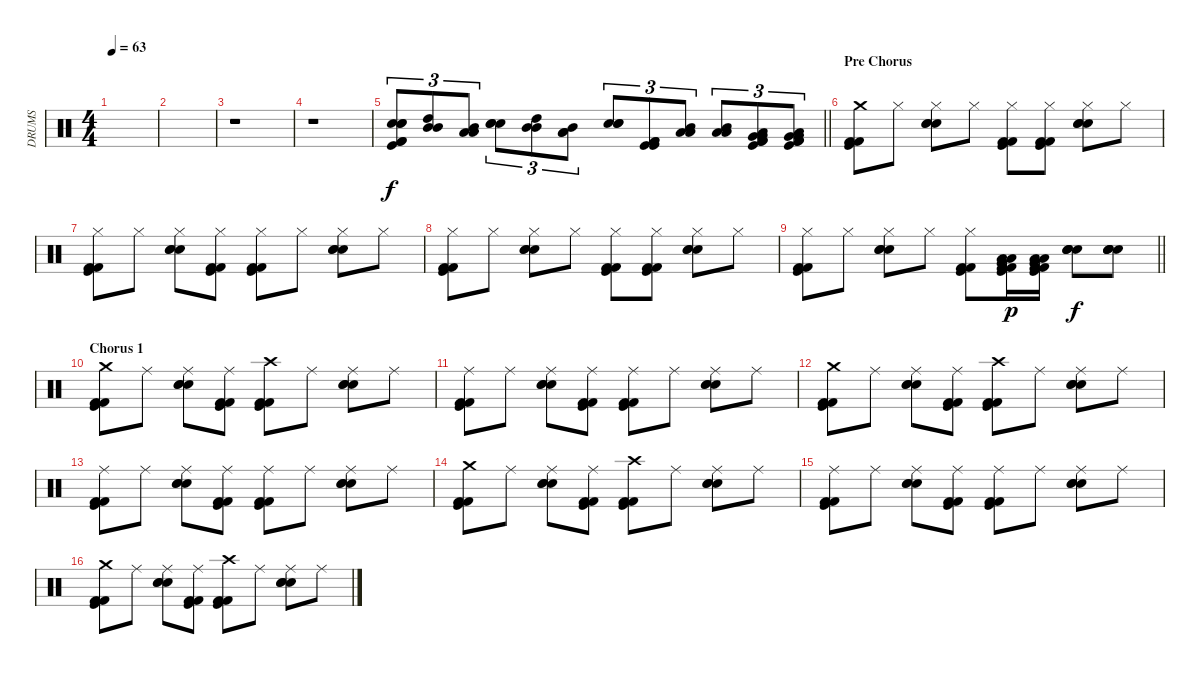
\track ("DRUMS" "DRUMS") {instrument percussion}
\staff {score}
\articulation defaults
\ts (4 4)
\tempo 63
\clef neutral
\ks c
|
|
r.1 |
r.1 |
\barLineRight lightlight
("Kick (hit) 2" "Kick (hit)" "Kick (hit) 2" "Electric Snare (hit)" "Snare (hit) 2" "Electric Snare (hit)").8{tu (3 2) volume 10} ("Mid Tom (hit)" "Mid Tom (hit)" "High Tom (hit)").8{tu (3 2) balance 2} ("Low Tom (hit)" "Low Tom (hit)" "Mid Tom (hit)").8{tu (3 2) balance 4} ("Electric Snare (hit)" "Snare (hit) 2" "Electric Snare (hit)").8{tu (3 2) balance 8} ("Mid Tom (hit)" "Mid Tom (hit)" "High Tom (hit)").8{tu (3 2) balance 14} ("Low Tom (hit)" "Low Tom (hit)" "Mid Tom (hit)").8{tu (3 2) balance 12} ("Electric Snare (hit)" "Snare (hit) 2" "Electric Snare (hit)").8{tu (3 2) balance 8} ("Kick (hit) 2" "Kick (hit)" "Kick (hit) 2" "Kick (hit)").8{tu (3 2)} ("Low Tom (hit)" "Low Tom (hit)" "Mid Tom (hit)").8{tu (3 2) balance 4} ("Low Tom (hit)" "Low Tom (hit)" "Mid Tom (hit)").8{tu (3 2) balance 12} ("Very Low Tom (hit)" "Very Low Tom (hit)" "Low Tom (hit)" "Kick (hit) 2" "Kick (hit)" "Kick (hit) 2").8{tu (3 2) balance 8} ("Very Low Tom (hit)" "Very Low Tom (hit)" "Low Tom (hit)" "Kick (hit) 2" "Kick (hit)" "Kick (hit) 2").8{tu (3 2)} |
\section ("" "Pre Chorus")
("Crash medium (hit)" "Kick (hit) 2" "Kick (hit)" "Kick (hit) 2").8{volume 8} "Hi-Hat (closed)".8 ("Hi-Hat (closed)" "Electric Snare (hit)" "Snare (hit) 2" "Electric Snare (hit)").8 "Hi-Hat (closed)".8 ("Hi-Hat (closed)" "Kick (hit) 2" "Kick (hit)" "Kick (hit) 2").8 ("Hi-Hat (closed)" "Kick (hit) 2" "Kick (hit)" "Kick (hit) 2").8 ("Hi-Hat (closed)" "Electric Snare (hit)" "Snare (hit) 2" "Electric Snare (hit)").8 "Hi-Hat (closed)".8 |
("Hi-Hat (closed)" "Kick (hit) 2" "Kick (hit)" "Kick (hit) 2").8 "Hi-Hat (closed)".8 ("Hi-Hat (closed)" "Electric Snare (hit)" "Snare (hit) 2" "Electric Snare (hit)").8 ("Hi-Hat (closed)" "Kick (hit) 2" "Kick (hit)" "Kick (hit) 2").8 ("Hi-Hat (closed)" "Kick (hit) 2" "Kick (hit)" "Kick (hit) 2").8 "Hi-Hat (closed)".8 ("Hi-Hat (closed)" "Electric Snare (hit)" "Snare (hit) 2" "Electric Snare (hit)").8 "Hi-Hat (closed)".8 |
("Hi-Hat (closed)" "Kick (hit) 2" "Kick (hit)" "Kick (hit) 2").8 "Hi-Hat (closed)".8 ("Hi-Hat (closed)" "Electric Snare (hit)" "Snare (hit) 2" "Electric Snare (hit)").8 "Hi-Hat (closed)".8 ("Hi-Hat (closed)" "Kick (hit) 2" "Kick (hit)" "Kick (hit) 2").8 ("Hi-Hat (closed)" "Kick (hit) 2" "Kick (hit)" "Kick (hit) 2").8 ("Hi-Hat (closed)" "Electric Snare (hit)" "Snare (hit) 2" "Electric Snare (hit)").8 "Hi-Hat (closed)".8 |
\barLineRight lightlight
("Hi-Hat (closed)" "Kick (hit) 2" "Kick (hit)" "Kick (hit) 2").8 "Hi-Hat (closed)".8 ("Hi-Hat (closed)" "Electric Snare (hit)" "Snare (hit) 2" "Electric Snare (hit)").8 "Hi-Hat (closed)".8 ("Hi-Hat (closed)" "Kick (hit) 2" "Kick (hit)" "Kick (hit) 2").8 ("Low Floor Tom (hit)" "Low Floor Tom (hit)" "Very Low Tom (hit)" "Kick (hit) 2" "Kick (hit)" "Kick (hit) 2").16{dy p volume 10 balance 4} ("Low Floor Tom (hit)" "Low Floor Tom (hit)" "Very Low Tom (hit)" "Kick (hit) 2" "Kick (hit)" "Kick (hit) 2").16{balance 12} ("Electric Snare (hit)" "Electric Snare (hit)" "Snare (hit) 2" "Electric Snare (hit)").8{dy f volume 8 balance 8} ("Electric Snare (hit)" "Electric Snare (hit)" "Snare (hit) 2" "Electric Snare (hit)").8 |
\section ("" "Chorus 1")
("Crash medium (hit)" "Kick (hit) 2" "Kick (hit)" "Kick (hit) 2").8 "Ride (middle)".8 ("Ride (middle)" "Electric Snare (hit)" "Snare (hit) 2" "Electric Snare (hit)").8 ("Ride (middle)" "Kick (hit) 2" "Kick (hit)" "Kick (hit) 2").8 ("Crash high (hit)" "Kick (hit) 2" "Kick (hit)" "Kick (hit) 2").8 "Ride (middle)".8 ("Ride (middle)" "Electric Snare (hit)" "Snare (hit) 2" "Electric Snare (hit)").8 "Ride (middle)".8 |
("Ride (middle)" "Kick (hit) 2" "Kick (hit)" "Kick (hit) 2").8 "Ride (middle)".8 ("Ride (middle)" "Electric Snare (hit)" "Snare (hit) 2" "Electric Snare (hit)").8 ("Ride (middle)" "Kick (hit) 2" "Kick (hit)" "Kick (hit) 2").8 ("Ride (middle)" "Kick (hit) 2" "Kick (hit)" "Kick (hit) 2").8 "Ride (middle)".8 ("Ride (middle)" "Electric Snare (hit)" "Snare (hit) 2" "Electric Snare (hit)").8 "Ride (middle)".8 |
("Crash medium (hit)" "Kick (hit) 2" "Kick (hit)" "Kick (hit) 2").8 "Ride (middle)".8 ("Ride (middle)" "Electric Snare (hit)" "Snare (hit) 2" "Electric Snare (hit)").8 ("Ride (middle)" "Kick (hit) 2" "Kick (hit)" "Kick (hit) 2").8 ("Crash high (hit)" "Kick (hit) 2" "Kick (hit)" "Kick (hit) 2").8 "Ride (middle)".8 ("Ride (middle)" "Electric Snare (hit)" "Snare (hit) 2" "Electric Snare (hit)").8 "Ride (middle)".8 |
("Ride (middle)" "Kick (hit) 2" "Kick (hit)" "Kick (hit) 2").8 "Ride (middle)".8 ("Ride (middle)" "Electric Snare (hit)" "Snare (hit) 2" "Electric Snare (hit)").8 ("Ride (middle)" "Kick (hit) 2" "Kick (hit)" "Kick (hit) 2").8 ("Ride (middle)" "Kick (hit) 2" "Kick (hit)" "Kick (hit) 2").8 "Ride (middle)".8 ("Ride (middle)" "Electric Snare (hit)" "Snare (hit) 2" "Electric Snare (hit)").8 "Ride (middle)".8 |
("Crash medium (hit)" "Kick (hit) 2" "Kick (hit)" "Kick (hit) 2").8 "Ride (middle)".8 ("Ride (middle)" "Electric Snare (hit)" "Snare (hit) 2" "Electric Snare (hit)").8 ("Ride (middle)" "Kick (hit) 2" "Kick (hit)" "Kick (hit) 2").8 ("Crash high (hit)" "Kick (hit) 2" "Kick (hit)" "Kick (hit) 2").8 "Ride (middle)".8 ("Ride (middle)" "Electric Snare (hit)" "Snare (hit) 2" "Electric Snare (hit)").8 "Ride (middle)".8 |
("Ride (middle)" "Kick (hit) 2" "Kick (hit)" "Kick (hit) 2").8 "Ride (middle)".8 ("Ride (middle)" "Electric Snare (hit)" "Snare (hit) 2" "Electric Snare (hit)").8 ("Ride (middle)" "Kick (hit) 2" "Kick (hit)" "Kick (hit) 2").8 ("Ride (middle)" "Kick (hit) 2" "Kick (hit)" "Kick (hit) 2").8 "Ride (middle)".8 ("Ride (middle)" "Electric Snare (hit)" "Snare (hit) 2" "Electric Snare (hit)").8 "Ride (middle)".8 |
("Crash medium (hit)" "Kick (hit) 2" "Kick (hit)" "Kick (hit) 2").8 "Ride (middle)".8 ("Ride (middle)" "Electric Snare (hit)" "Snare (hit) 2" "Electric Snare (hit)").8 ("Ride (middle)" "Kick (hit) 2" "Kick (hit)" "Kick (hit) 2").8 ("Crash high (hit)" "Kick (hit) 2" "Kick (hit)" "Kick (hit) 2").8 "Ride (middle)".8 ("Ride (middle)" "Electric Snare (hit)" "Snare (hit) 2" "Electric Snare (hit)").8 "Ride (middle)".8
